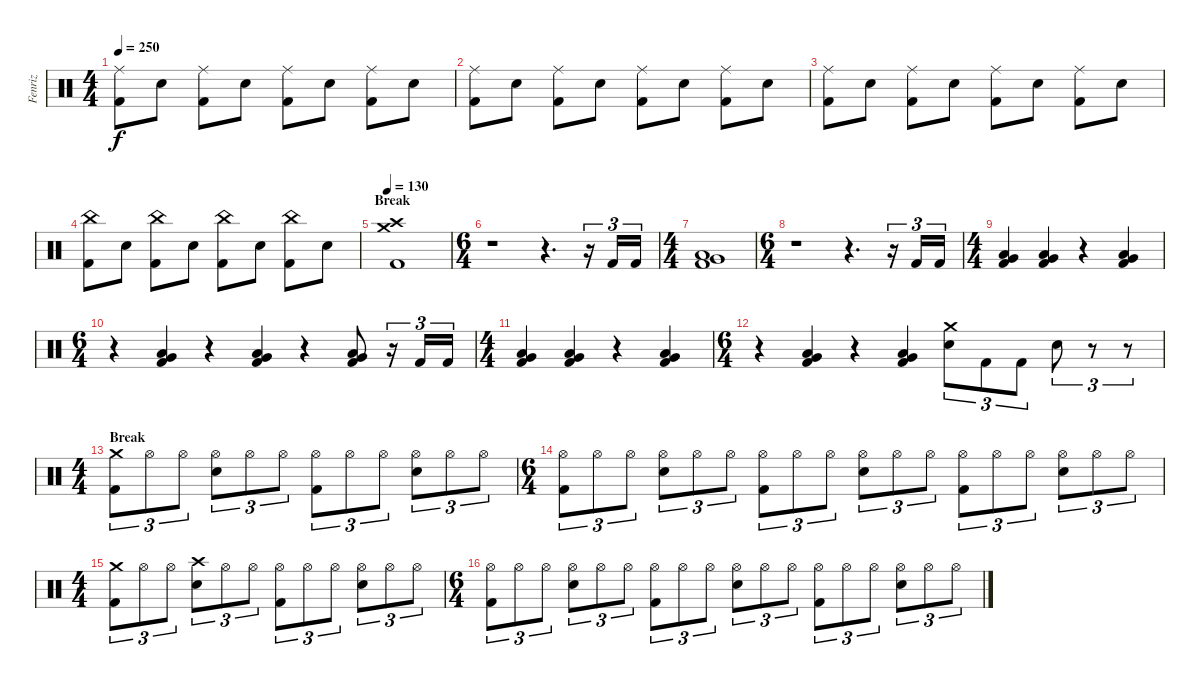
\track ("Fenriz" "Fenriz") {instrument percussion}
\staff {score}
\articulation defaults
\ts (4 4)
\tempo 250
\clef neutral
\ks c
("Ride (middle)" "Kick (hit) 2").8{dy f} "Electric Snare (hit)".8 ("Ride (middle)" "Kick (hit) 2").8 "Electric Snare (hit)".8 ("Ride (middle)" "Kick (hit) 2").8 "Electric Snare (hit)".8 ("Ride (middle)" "Kick (hit) 2").8 "Electric Snare (hit)".8 |
("Ride (middle)" "Kick (hit) 2").8 "Electric Snare (hit)".8 ("Ride (middle)" "Kick (hit) 2").8 "Electric Snare (hit)".8 ("Ride (middle)" "Kick (hit) 2").8 "Electric Snare (hit)".8 ("Ride (middle)" "Kick (hit) 2").8 "Electric Snare (hit)".8 |
("Ride (middle)" "Kick (hit) 2").8 "Electric Snare (hit)".8 ("Ride (middle)" "Kick (hit) 2").8 "Electric Snare (hit)".8 ("Ride (middle)" "Kick (hit) 2").8 "Electric Snare (hit)".8 ("Ride (middle)" "Kick (hit) 2").8 "Electric Snare (hit)".8 |
("China (hit)" "Kick (hit) 2").8 "Electric Snare (hit)".8 ("China (hit)" "Kick (hit) 2").8 "Electric Snare (hit)".8 ("China (hit)" "Kick (hit) 2").8 "Electric Snare (hit)".8 ("China (hit)" "Kick (hit) 2").8 "Electric Snare (hit)".8 |
\section ("" "Break")
\tempo 130
("Crash medium (hit)" "Crash high (hit)" "Kick (hit) 2").1 |
\ts (6 4)
r.1 r.4{d} r.16{tu (3 2)} "Kick (hit) 2".16{tu (3 2)} "Kick (hit) 2".16{tu (3 2)} |
\ts (4 4)
("Very Low Tom (hit)" "Low Floor Tom (hit)" "Kick (hit) 2").1 |
\ts (6 4)
r.1 r.4{d} r.16{tu (3 2)} "Kick (hit) 2".16{tu (3 2)} "Kick (hit) 2".16{tu (3 2)} |
\ts (4 4)
("Very Low Tom (hit)" "Low Floor Tom (hit)" "Kick (hit) 2").4 ("Very Low Tom (hit)" "Low Floor Tom (hit)" "Kick (hit) 2").4 r.4 ("Very Low Tom (hit)" "Low Floor Tom (hit)" "Kick (hit) 2").4 |
\ts (6 4)
r.4 ("Very Low Tom (hit)" "Low Floor Tom (hit)" "Kick (hit) 2").4 r.4 ("Very Low Tom (hit)" "Low Floor Tom (hit)" "Kick (hit) 2").4 r.4 ("Very Low Tom (hit)" "Low Floor Tom (hit)" "Kick (hit) 2").8 r.16{tu (3 2)} "Kick (hit) 2".16{tu (3 2)} "Kick (hit) 2".16{tu (3 2)} |
\ts (4 4)
("Very Low Tom (hit)" "Low Floor Tom (hit)" "Kick (hit) 2").4 ("Very Low Tom (hit)" "Low Floor Tom (hit)" "Kick (hit) 2").4 r.4 ("Very Low Tom (hit)" "Low Floor Tom (hit)" "Kick (hit) 2").4 |
\ts (6 4)
r.4 ("Very Low Tom (hit)" "Low Floor Tom (hit)" "Kick (hit) 2").4 r.4 ("Very Low Tom (hit)" "Low Floor Tom (hit)" "Kick (hit) 2").4 ("Crash medium (hit)" "Electric Snare (hit)").8{tu (3 2)} "Kick (hit) 2".8{tu (3 2)} "Kick (hit) 2".8{tu (3 2)} "Electric Snare (hit)".8{tu (3 2)} r.8{tu (3 2)} r.8{tu (3 2)} |
\ts (4 4)
\section ("" "Break")
("Crash medium (hit)" "Kick (hit) 2").8{tu (3 2)} "Hi-Hat (open)".8{tu (3 2)} "Hi-Hat (open)".8{tu (3 2)} ("Hi-Hat (open)" "Electric Snare (hit)").8{tu (3 2)} "Hi-Hat (open)".8{tu (3 2)} "Hi-Hat (open)".8{tu (3 2)} ("Hi-Hat (open)" "Kick (hit) 2").8{tu (3 2)} "Hi-Hat (open)".8{tu (3 2)} "Hi-Hat (open)".8{tu (3 2)} ("Hi-Hat (open)" "Electric Snare (hit)").8{tu (3 2)} "Hi-Hat (open)".8{tu (3 2)} "Hi-Hat (open)".8{tu (3 2)} |
\ts (6 4)
("Hi-Hat (open)" "Kick (hit) 2").8{tu (3 2)} "Hi-Hat (open)".8{tu (3 2)} "Hi-Hat (open)".8{tu (3 2)} ("Hi-Hat (open)" "Electric Snare (hit)").8{tu (3 2)} "Hi-Hat (open)".8{tu (3 2)} "Hi-Hat (open)".8{tu (3 2)} ("Hi-Hat (open)" "Kick (hit) 2").8{tu (3 2)} "Hi-Hat (open)".8{tu (3 2)} "Hi-Hat (open)".8{tu (3 2)} ("Hi-Hat (open)" "Electric Snare (hit)").8{tu (3 2)} "Hi-Hat (open)".8{tu (3 2)} "Hi-Hat (open)".8{tu (3 2)} ("Hi-Hat (open)" "Kick (hit) 2").8{tu (3 2)} "Hi-Hat (open)".8{tu (3 2)} "Hi-Hat (open)".8{tu (3 2)} ("Hi-Hat (open)" "Electric Snare (hit)").8{tu (3 2)} "Hi-Hat (open)".8{tu (3 2)} "Hi-Hat (open)".8{tu (3 2)} |
\ts (4 4)
("Crash medium (hit)" "Kick (hit) 2").8{tu (3 2)} "Hi-Hat (open)".8{tu (3 2)} "Hi-Hat (open)".8{tu (3 2)} ("Crash high (hit)" "Electric Snare (hit)").8{tu (3 2)} "Hi-Hat (open)".8{tu (3 2)} "Hi-Hat (open)".8{tu (3 2)} ("Hi-Hat (open)" "Kick (hit) 2").8{tu (3 2)} "Hi-Hat (open)".8{tu (3 2)} "Hi-Hat (open)".8{tu (3 2)} ("Hi-Hat (open)" "Electric Snare (hit)").8{tu (3 2)} "Hi-Hat (open)".8{tu (3 2)} "Hi-Hat (open)".8{tu (3 2)} |
\ts (6 4)
("Hi-Hat (open)" "Kick (hit) 2").8{tu (3 2)} "Hi-Hat (open)".8{tu (3 2)} "Hi-Hat (open)".8{tu (3 2)} ("Hi-Hat (open)" "Electric Snare (hit)").8{tu (3 2)} "Hi-Hat (open)".8{tu (3 2)} "Hi-Hat (open)".8{tu (3 2)} ("Hi-Hat (open)" "Kick (hit) 2").8{tu (3 2)} "Hi-Hat (open)".8{tu (3 2)} "Hi-Hat (open)".8{tu (3 2)} ("Hi-Hat (open)" "Electric Snare (hit)").8{tu (3 2)} "Hi-Hat (open)".8{tu (3 2)} "Hi-Hat (open)".8{tu (3 2)} ("Hi-Hat (open)" "Kick (hit) 2").8{tu (3 2)} "Hi-Hat (open)".8{tu (3 2)} "Hi-Hat (open)".8{tu (3 2)} ("Hi-Hat (open)" "Electric Snare (hit)").8{tu (3 2)} "Hi-Hat (open)".8{tu (3 2)} "Hi-Hat (open)".8{tu (3 2)}
